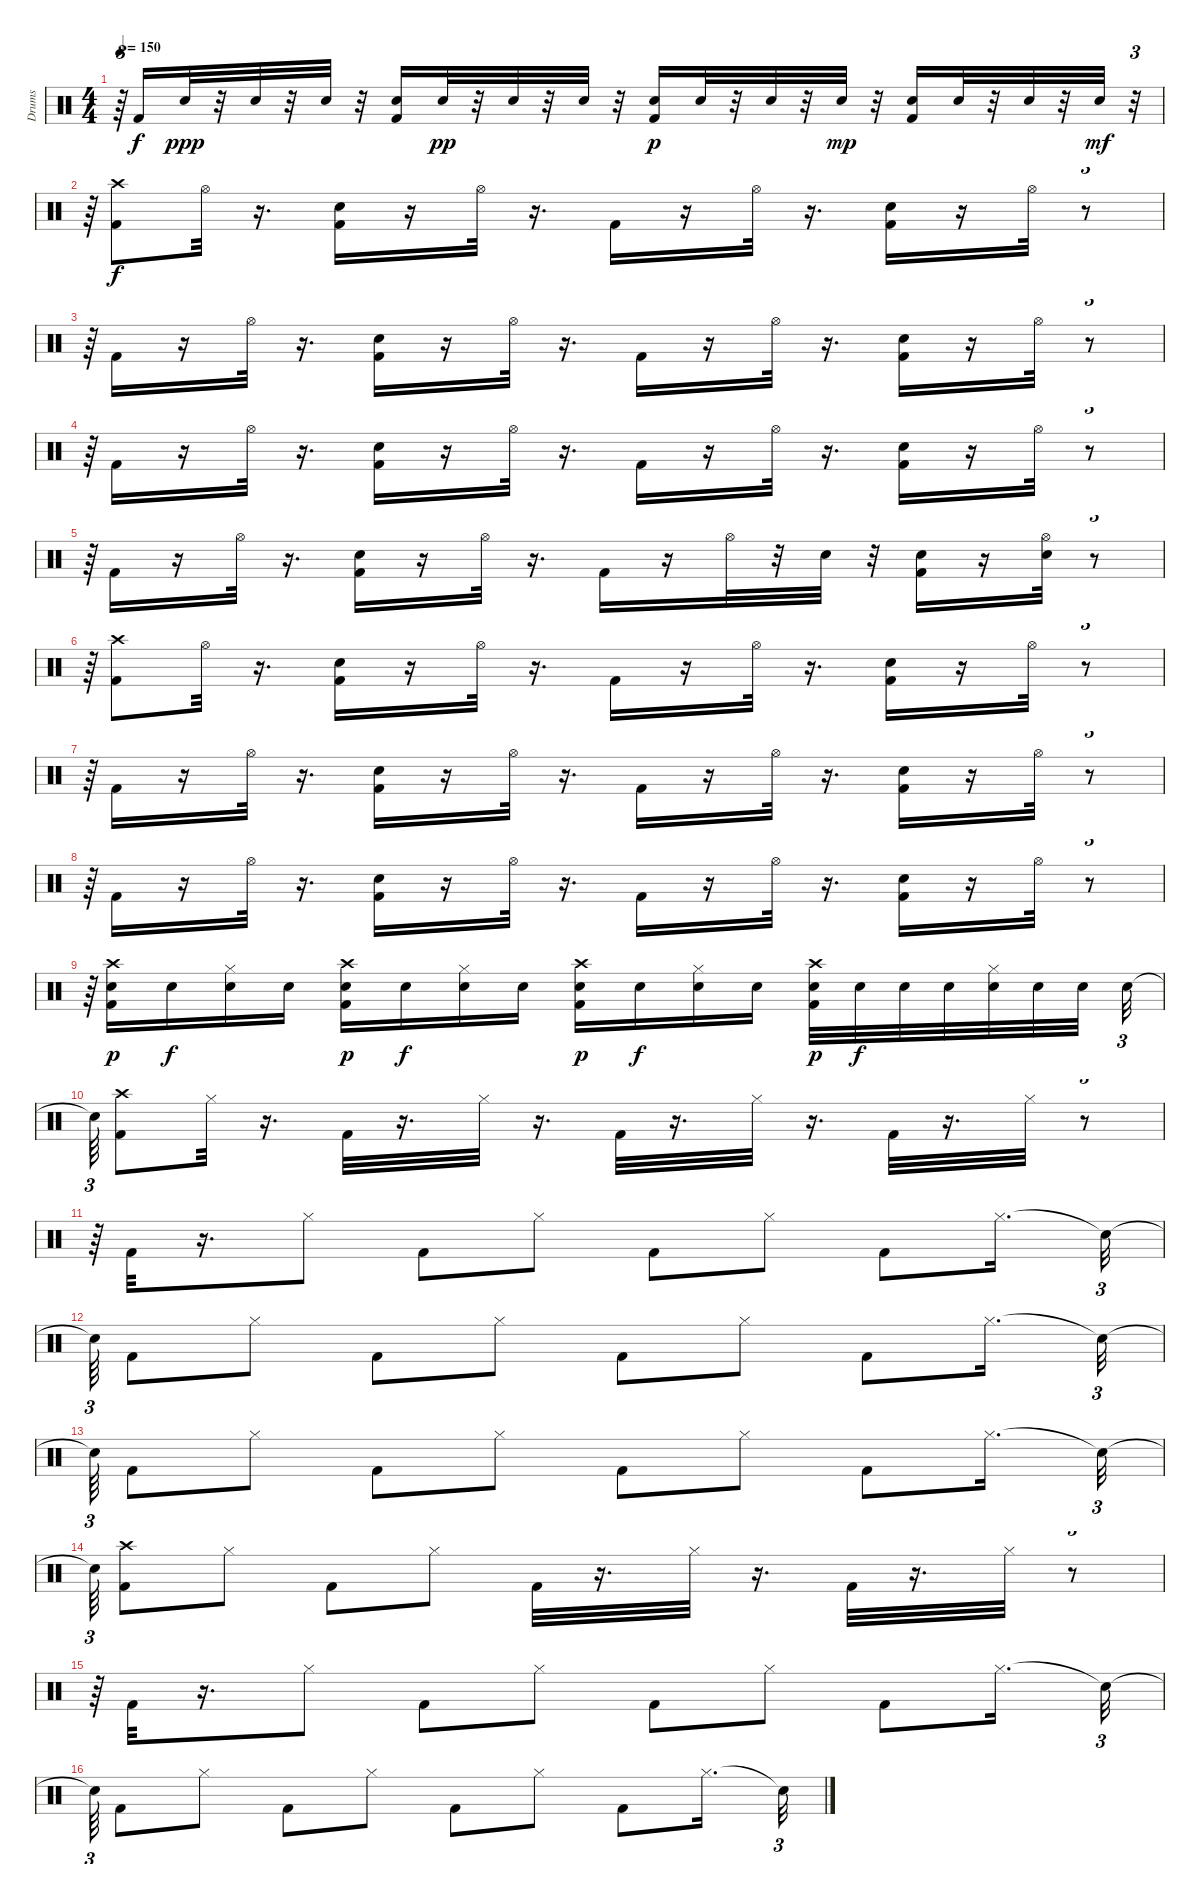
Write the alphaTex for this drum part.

\track ("Drums" "Drums") {instrument percussion}
\staff {score}
\articulation defaults
\ts (4 4)
\tempo 150
\clef neutral
\ks c
r.64{tu (3 2) dy f} "Kick (hit) 2".16 "Electric Snare (hit)".32{dy ppp} r.32 "Electric Snare (hit)".32 r.32 "Electric Snare (hit)".32 r.32 ("Kick (hit) 2" "Electric Snare (hit)").16 "Electric Snare (hit)".32{dy pp} r.32 "Electric Snare (hit)".32 r.32 "Electric Snare (hit)".32 r.32 ("Kick (hit) 2" "Electric Snare (hit)").16{dy p} "Electric Snare (hit)".32 r.32 "Electric Snare (hit)".32 r.32 "Electric Snare (hit)".32{dy mp} r.32 ("Kick (hit) 2" "Electric Snare (hit)").16 "Electric Snare (hit)".32 r.32 "Electric Snare (hit)".32 r.32 "Electric Snare (hit)".32{dy mf} r.32{tu (3 2)} |
r.64{tu (3 2)} ("Kick (hit) 2" "Crash high (hit)").8{dy f} "Hi-Hat (open)".32 r.16{d} ("Electric Snare (hit)" "Kick (hit) 2").16 r.16 "Hi-Hat (open)".32 r.16{d} "Kick (hit) 2".16 r.16 "Hi-Hat (open)".32 r.16{d} ("Electric Snare (hit)" "Kick (hit) 2").16 r.16 "Hi-Hat (open)".32 r.8{tu (3 2)} |
r.64{tu (3 2)} "Kick (hit) 2".16 r.16 "Hi-Hat (open)".32 r.16{d} ("Electric Snare (hit)" "Kick (hit) 2").16 r.16 "Hi-Hat (open)".32 r.16{d} "Kick (hit) 2".16 r.16 "Hi-Hat (open)".32 r.16{d} ("Electric Snare (hit)" "Kick (hit) 2").16 r.16 "Hi-Hat (open)".32 r.8{tu (3 2)} |
r.64{tu (3 2)} "Kick (hit) 2".16 r.16 "Hi-Hat (open)".32 r.16{d} ("Electric Snare (hit)" "Kick (hit) 2").16 r.16 "Hi-Hat (open)".32 r.16{d} "Kick (hit) 2".16 r.16 "Hi-Hat (open)".32 r.16{d} ("Electric Snare (hit)" "Kick (hit) 2").16 r.16 "Hi-Hat (open)".32 r.8{tu (3 2)} |
r.64{tu (3 2)} "Kick (hit) 2".16 r.16 "Hi-Hat (open)".32 r.16{d} ("Electric Snare (hit)" "Kick (hit) 2").16 r.16 "Hi-Hat (open)".32 r.16{d} "Kick (hit) 2".16 r.16 "Hi-Hat (open)".32 r.32 "Electric Snare (hit)".32 r.32 ("Electric Snare (hit)" "Kick (hit) 2").16 r.16 ("Electric Snare (hit)" "Hi-Hat (open)").32 r.8{tu (3 2)} |
r.64{tu (3 2)} ("Kick (hit) 2" "Crash high (hit)").8 "Hi-Hat (open)".32 r.16{d} ("Electric Snare (hit)" "Kick (hit) 2").16 r.16 "Hi-Hat (open)".32 r.16{d} "Kick (hit) 2".16 r.16 "Hi-Hat (open)".32 r.16{d} ("Electric Snare (hit)" "Kick (hit) 2").16 r.16 "Hi-Hat (open)".32 r.8{tu (3 2)} |
r.64{tu (3 2)} "Kick (hit) 2".16 r.16 "Hi-Hat (open)".32 r.16{d} ("Electric Snare (hit)" "Kick (hit) 2").16 r.16 "Hi-Hat (open)".32 r.16{d} "Kick (hit) 2".16 r.16 "Hi-Hat (open)".32 r.16{d} ("Electric Snare (hit)" "Kick (hit) 2").16 r.16 "Hi-Hat (open)".32 r.8{tu (3 2)} |
r.64{tu (3 2)} "Kick (hit) 2".16 r.16 "Hi-Hat (open)".32 r.16{d} ("Electric Snare (hit)" "Kick (hit) 2").16 r.16 "Hi-Hat (open)".32 r.16{d} "Kick (hit) 2".16 r.16 "Hi-Hat (open)".32 r.16{d} ("Electric Snare (hit)" "Kick (hit) 2").16 r.16 "Hi-Hat (open)".32 r.8{tu (3 2)} |
r.64{tu (3 2)} ("Electric Snare (hit)" "Crash high (hit)" "Kick (hit) 2").16{dy p} "Electric Snare (hit)".16{dy f} ("Electric Snare (hit)" "Hi-Hat (closed)").16 "Electric Snare (hit)".16 ("Electric Snare (hit)" "Kick (hit) 2" "Crash high (hit)").16{dy p} "Electric Snare (hit)".16{dy f} ("Electric Snare (hit)" "Hi-Hat (closed)").16 "Electric Snare (hit)".16 ("Electric Snare (hit)" "Kick (hit) 2" "Crash high (hit)").16{dy p} "Electric Snare (hit)".16{dy f} ("Electric Snare (hit)" "Hi-Hat (closed)").16 "Electric Snare (hit)".16 ("Electric Snare (hit)" "Kick (hit) 2" "Crash high (hit)").32{dy p} "Electric Snare (hit)".32{dy f} "Electric Snare (hit)".32 "Electric Snare (hit)".32 ("Electric Snare (hit)" "Hi-Hat (closed)").32 "Electric Snare (hit)".32 "Electric Snare (hit)".32 "Electric Snare (hit)".32{tu (3 2)} |
"Snare (hit)"{t}.64{tu (3 2)} ("Crash high (hit)" "Kick (hit) 2").8 "Hi-Hat (closed)".32 r.16{d} "Kick (hit) 2".32 r.16{d} "Hi-Hat (closed)".32 r.16{d} "Kick (hit) 2".32 r.16{d} "Hi-Hat (closed)".32 r.16{d} "Kick (hit) 2".32 r.16{d} "Hi-Hat (closed)".32 r.8{tu (3 2)} |
r.64{tu (3 2)} "Kick (hit) 2".32 r.16{d} "Hi-Hat (closed)".8 "Kick (hit) 2".8 "Hi-Hat (closed)".8 "Kick (hit) 2".8 "Hi-Hat (closed)".8 "Kick (hit) 2".8 "Hi-Hat (closed)".16{d} "Snare (hit)"{t}.32{tu (3 2)} |
"Snare (hit)"{t}.64{tu (3 2)} "Kick (hit) 2".8 "Hi-Hat (closed)".8 "Kick (hit) 2".8 "Hi-Hat (closed)".8 "Kick (hit) 2".8 "Hi-Hat (closed)".8 "Kick (hit) 2".8 "Hi-Hat (closed)".16{d} "Snare (hit)"{t}.32{tu (3 2)} |
"Snare (hit)"{t}.64{tu (3 2)} "Kick (hit) 2".8 "Hi-Hat (closed)".8 "Kick (hit) 2".8 "Hi-Hat (closed)".8 "Kick (hit) 2".8 "Hi-Hat (closed)".8 "Kick (hit) 2".8 "Hi-Hat (closed)".16{d} "Snare (hit)"{t}.32{tu (3 2)} |
"Snare (hit)"{t}.64{tu (3 2)} ("Crash high (hit)" "Kick (hit) 2").8 "Hi-Hat (closed)".8 "Kick (hit) 2".8 "Hi-Hat (closed)".8 "Kick (hit) 2".32 r.16{d} "Hi-Hat (closed)".32 r.16{d} "Kick (hit) 2".32 r.16{d} "Hi-Hat (closed)".32 r.8{tu (3 2)} |
r.64{tu (3 2)} "Kick (hit) 2".32 r.16{d} "Hi-Hat (closed)".8 "Kick (hit) 2".8 "Hi-Hat (closed)".8 "Kick (hit) 2".8 "Hi-Hat (closed)".8 "Kick (hit) 2".8 "Hi-Hat (closed)".16{d} "Snare (hit)"{t}.32{tu (3 2)} |
"Snare (hit)"{t}.64{tu (3 2)} "Kick (hit) 2".8 "Hi-Hat (closed)".8 "Kick (hit) 2".8 "Hi-Hat (closed)".8 "Kick (hit) 2".8 "Hi-Hat (closed)".8 "Kick (hit) 2".8 "Hi-Hat (closed)".16{d} "Snare (hit)"{t}.32{tu (3 2)}
